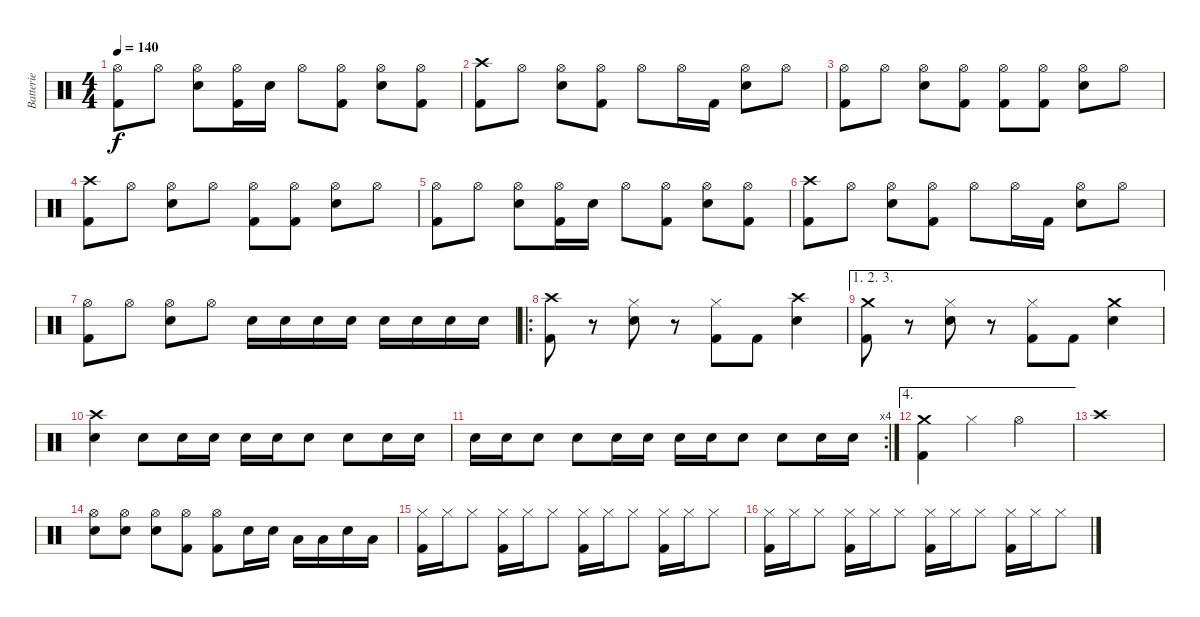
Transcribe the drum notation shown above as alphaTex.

\track ("Batterie" "Batterie") {instrument percussion}
\staff {score}
\articulation defaults
\ts (4 4)
\tempo 140
\clef neutral
\ks c
("Hi-Hat (open)" "Kick (hit) 2").8{dy f} "Hi-Hat (open)".8 ("Hi-Hat (open)" "Snare (hit) 2").8 ("Hi-Hat (open)" "Kick (hit) 2").16 "Snare (hit) 2".16 "Hi-Hat (open)".8 ("Hi-Hat (open)" "Kick (hit) 2").8 ("Hi-Hat (open)" "Snare (hit) 2").8 ("Hi-Hat (open)" "Kick (hit) 2").8 |
("Crash high (hit)" "Kick (hit) 2").8 "Hi-Hat (open)".8 ("Hi-Hat (open)" "Snare (hit) 2").8 ("Hi-Hat (open)" "Kick (hit) 2").8 "Hi-Hat (open)".8 "Hi-Hat (open)".16 "Kick (hit) 2".16 ("Hi-Hat (open)" "Snare (hit) 2").8 "Hi-Hat (open)".8 |
("Hi-Hat (open)" "Kick (hit) 2").8 "Hi-Hat (open)".8 ("Hi-Hat (open)" "Snare (hit) 2").8 ("Hi-Hat (open)" "Kick (hit) 2").8 ("Hi-Hat (open)" "Kick (hit) 2").8 ("Hi-Hat (open)" "Kick (hit) 2").8 ("Hi-Hat (open)" "Snare (hit) 2").8 "Hi-Hat (open)".8 |
("Crash high (hit)" "Kick (hit) 2").8 "Hi-Hat (open)".8 ("Hi-Hat (open)" "Snare (hit) 2").8 "Hi-Hat (open)".8 ("Hi-Hat (open)" "Kick (hit) 2").8 ("Hi-Hat (open)" "Kick (hit) 2").8 ("Hi-Hat (open)" "Snare (hit) 2").8 "Hi-Hat (open)".8 |
("Hi-Hat (open)" "Kick (hit) 2").8 "Hi-Hat (open)".8 ("Hi-Hat (open)" "Snare (hit) 2").8 ("Hi-Hat (open)" "Kick (hit) 2").16 "Snare (hit) 2".16 "Hi-Hat (open)".8 ("Hi-Hat (open)" "Kick (hit) 2").8 ("Hi-Hat (open)" "Snare (hit) 2").8 ("Hi-Hat (open)" "Kick (hit) 2").8 |
("Crash high (hit)" "Kick (hit) 2").8 "Hi-Hat (open)".8 ("Hi-Hat (open)" "Snare (hit) 2").8 ("Hi-Hat (open)" "Kick (hit) 2").8 "Hi-Hat (open)".8 "Hi-Hat (open)".16 "Kick (hit) 2".16 ("Hi-Hat (open)" "Snare (hit) 2").8 "Hi-Hat (open)".8 |
("Hi-Hat (open)" "Kick (hit) 2").8 "Hi-Hat (open)".8 ("Hi-Hat (open)" "Snare (hit) 2").8 "Hi-Hat (open)".8 "Snare (hit) 2".16 "Snare (hit) 2".16 "Snare (hit) 2".16 "Snare (hit) 2".16 "Snare (hit) 2".16 "Snare (hit) 2".16 "Snare (hit) 2".16 "Snare (hit) 2".16 |
\ro
("Crash high (hit)" "Kick (hit) 2").8 r.8 ("Hi-Hat (closed)" "Snare (hit) 2").8 r.8 ("Hi-Hat (closed)" "Kick (hit) 2").8 "Kick (hit) 2".8 ("Crash high (hit)" "Snare (hit) 2").4 |
\ae (1 2 3)
("Crash medium (hit)" "Kick (hit) 2").8 r.8 ("Hi-Hat (closed)" "Snare (hit) 2").8 r.8 ("Hi-Hat (closed)" "Kick (hit) 2").8 "Kick (hit) 2".8 ("Crash medium (hit)" "Snare (hit) 2").4 |
("Crash high (hit)" "Snare (hit) 2").4 "Snare (hit) 2".8 "Snare (hit) 2".16 "Snare (hit) 2".16 "Snare (hit) 2".16 "Snare (hit) 2".16 "Snare (hit) 2".8 "Snare (hit) 2".8 "Snare (hit) 2".16 "Snare (hit) 2".16 |
\rc 4 "Snare (hit) 2".16 "Snare (hit) 2".16 "Snare (hit) 2".8 "Snare (hit) 2".8 "Snare (hit) 2".16 "Snare (hit) 2".16 "Snare (hit) 2".16 "Snare (hit) 2".16 "Snare (hit) 2".8 "Snare (hit) 2".8 "Snare (hit) 2".16 "Snare (hit) 2".16
|
\ae 4
("Crash medium (hit)" "Kick (hit) 2").4 "Hi-Hat (closed)".4 "Hi-Hat (open)".2 |
"Crash high (hit)".1 |
("Hi-Hat (open)" "Snare (hit) 2").8 ("Hi-Hat (open)" "Snare (hit) 2").8 ("Hi-Hat (open)" "Snare (hit) 2").8 ("Hi-Hat (open)" "Kick (hit) 2").8 ("Hi-Hat (open)" "Kick (hit) 2").8 "Snare (hit) 2".16 "Snare (hit) 2".16 "Low Floor Tom (hit)".16 "Low Floor Tom (hit)".16 "Snare (hit) 2".16 "Low Floor Tom (hit)".16 |
("Hi-Hat (closed)" "Kick (hit) 2").16 "Hi-Hat (closed)".16 "Hi-Hat (closed)".8 ("Hi-Hat (closed)" "Kick (hit) 2").16 "Hi-Hat (closed)".16 "Hi-Hat (closed)".8 ("Hi-Hat (closed)" "Kick (hit) 2").16 "Hi-Hat (closed)".16 "Hi-Hat (closed)".8 ("Hi-Hat (closed)" "Kick (hit) 2").16 "Hi-Hat (closed)".16 "Hi-Hat (closed)".8 |
("Hi-Hat (closed)" "Kick (hit) 2").16 "Hi-Hat (closed)".16 "Hi-Hat (closed)".8 ("Hi-Hat (closed)" "Kick (hit) 2").16 "Hi-Hat (closed)".16 "Hi-Hat (closed)".8 ("Hi-Hat (closed)" "Kick (hit) 2").16 "Hi-Hat (closed)".16 "Hi-Hat (closed)".8 ("Hi-Hat (closed)" "Kick (hit) 2").16 "Hi-Hat (closed)".16 "Hi-Hat (closed)".8
